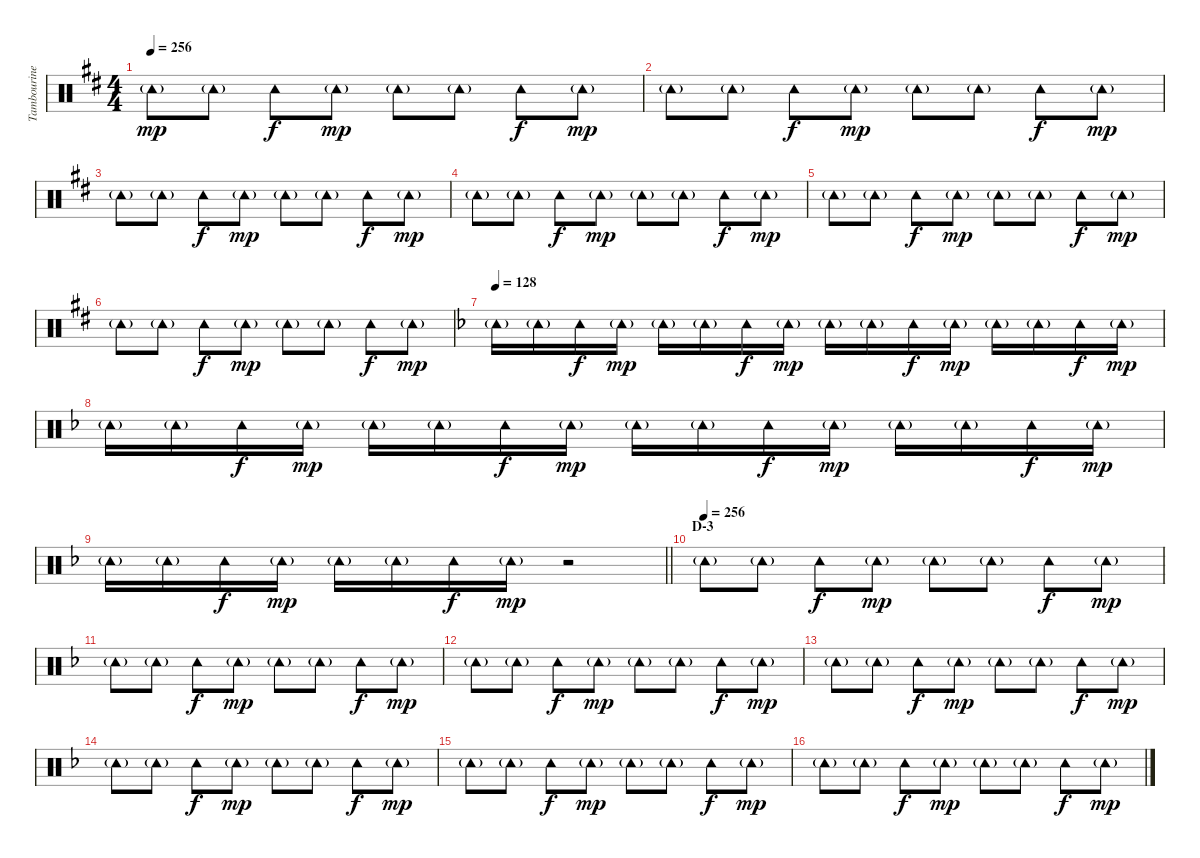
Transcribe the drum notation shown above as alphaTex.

\track ("Tambourine" "Tambourine") {instrument percussion}
\staff {score}
\articulation defaults
\ts (4 4)
\tempo 256
\clef neutral
\ks d "Tambourine (hit)"{g}.8{dy mp} "Tambourine (hit)"{g}.8 "Tambourine (hit)".8{dy f} "Tambourine (hit)"{g}.8{dy mp} "Tambourine (hit)"{g}.8 "Tambourine (hit)"{g}.8 "Tambourine (hit)".8{dy f} "Tambourine (hit)"{g}.8{dy mp}
|
"Tambourine (hit)"{g}.8 "Tambourine (hit)"{g}.8 "Tambourine (hit)".8{dy f} "Tambourine (hit)"{g}.8{dy mp} "Tambourine (hit)"{g}.8 "Tambourine (hit)"{g}.8 "Tambourine (hit)".8{dy f} "Tambourine (hit)"{g}.8{dy mp} |
"Tambourine (hit)"{g}.8 "Tambourine (hit)"{g}.8 "Tambourine (hit)".8{dy f} "Tambourine (hit)"{g}.8{dy mp} "Tambourine (hit)"{g}.8 "Tambourine (hit)"{g}.8 "Tambourine (hit)".8{dy f} "Tambourine (hit)"{g}.8{dy mp} |
"Tambourine (hit)"{g}.8 "Tambourine (hit)"{g}.8 "Tambourine (hit)".8{dy f} "Tambourine (hit)"{g}.8{dy mp} "Tambourine (hit)"{g}.8 "Tambourine (hit)"{g}.8 "Tambourine (hit)".8{dy f} "Tambourine (hit)"{g}.8{dy mp} |
"Tambourine (hit)"{g}.8 "Tambourine (hit)"{g}.8 "Tambourine (hit)".8{dy f} "Tambourine (hit)"{g}.8{dy mp} "Tambourine (hit)"{g}.8 "Tambourine (hit)"{g}.8 "Tambourine (hit)".8{dy f} "Tambourine (hit)"{g}.8{dy mp} |
"Tambourine (hit)"{g}.8 "Tambourine (hit)"{g}.8 "Tambourine (hit)".8{dy f} "Tambourine (hit)"{g}.8{dy mp} "Tambourine (hit)"{g}.8 "Tambourine (hit)"{g}.8 "Tambourine (hit)".8{dy f} "Tambourine (hit)"{g}.8{dy mp} |
\tempo 128
\ks f "Tambourine (hit)"{g}.16 "Tambourine (hit)"{g}.16 "Tambourine (hit)".16{dy f} "Tambourine (hit)"{g}.16{dy mp} "Tambourine (hit)"{g}.16 "Tambourine (hit)"{g}.16 "Tambourine (hit)".16{dy f} "Tambourine (hit)"{g}.16{dy mp} "Tambourine (hit)"{g}.16 "Tambourine (hit)"{g}.16 "Tambourine (hit)".16{dy f} "Tambourine (hit)"{g}.16{dy mp} "Tambourine (hit)"{g}.16 "Tambourine (hit)"{g}.16 "Tambourine (hit)".16{dy f} "Tambourine (hit)"{g}.16{dy mp}
|
"Tambourine (hit)"{g}.16 "Tambourine (hit)"{g}.16 "Tambourine (hit)".16{dy f} "Tambourine (hit)"{g}.16{dy mp} "Tambourine (hit)"{g}.16 "Tambourine (hit)"{g}.16 "Tambourine (hit)".16{dy f} "Tambourine (hit)"{g}.16{dy mp} "Tambourine (hit)"{g}.16 "Tambourine (hit)"{g}.16 "Tambourine (hit)".16{dy f} "Tambourine (hit)"{g}.16{dy mp} "Tambourine (hit)"{g}.16 "Tambourine (hit)"{g}.16 "Tambourine (hit)".16{dy f} "Tambourine (hit)"{g}.16{dy mp} |
\barLineRight lightlight "Tambourine (hit)"{g}.16 "Tambourine (hit)"{g}.16 "Tambourine (hit)".16{dy f} "Tambourine (hit)"{g}.16{dy mp} "Tambourine (hit)"{g}.16 "Tambourine (hit)"{g}.16 "Tambourine (hit)".16{dy f} "Tambourine (hit)"{g}.16{dy mp}
r.2 |
\section ("" "D-3")
\tempo (256)
"Tambourine (hit)"{g}.8 "Tambourine (hit)"{g}.8 "Tambourine (hit)".8{dy f} "Tambourine (hit)"{g}.8{dy mp} "Tambourine (hit)"{g}.8 "Tambourine (hit)"{g}.8 "Tambourine (hit)".8{dy f} "Tambourine (hit)"{g}.8{dy mp} |
"Tambourine (hit)"{g}.8 "Tambourine (hit)"{g}.8 "Tambourine (hit)".8{dy f} "Tambourine (hit)"{g}.8{dy mp} "Tambourine (hit)"{g}.8 "Tambourine (hit)"{g}.8 "Tambourine (hit)".8{dy f} "Tambourine (hit)"{g}.8{dy mp} |
"Tambourine (hit)"{g}.8 "Tambourine (hit)"{g}.8 "Tambourine (hit)".8{dy f} "Tambourine (hit)"{g}.8{dy mp} "Tambourine (hit)"{g}.8 "Tambourine (hit)"{g}.8 "Tambourine (hit)".8{dy f} "Tambourine (hit)"{g}.8{dy mp} |
"Tambourine (hit)"{g}.8 "Tambourine (hit)"{g}.8 "Tambourine (hit)".8{dy f} "Tambourine (hit)"{g}.8{dy mp} "Tambourine (hit)"{g}.8 "Tambourine (hit)"{g}.8 "Tambourine (hit)".8{dy f} "Tambourine (hit)"{g}.8{dy mp} |
"Tambourine (hit)"{g}.8 "Tambourine (hit)"{g}.8 "Tambourine (hit)".8{dy f} "Tambourine (hit)"{g}.8{dy mp} "Tambourine (hit)"{g}.8 "Tambourine (hit)"{g}.8 "Tambourine (hit)".8{dy f} "Tambourine (hit)"{g}.8{dy mp} |
"Tambourine (hit)"{g}.8 "Tambourine (hit)"{g}.8 "Tambourine (hit)".8{dy f} "Tambourine (hit)"{g}.8{dy mp} "Tambourine (hit)"{g}.8 "Tambourine (hit)"{g}.8 "Tambourine (hit)".8{dy f} "Tambourine (hit)"{g}.8{dy mp} |
"Tambourine (hit)"{g}.8 "Tambourine (hit)"{g}.8 "Tambourine (hit)".8{dy f} "Tambourine (hit)"{g}.8{dy mp} "Tambourine (hit)"{g}.8 "Tambourine (hit)"{g}.8 "Tambourine (hit)".8{dy f} "Tambourine (hit)"{g}.8{dy mp}
